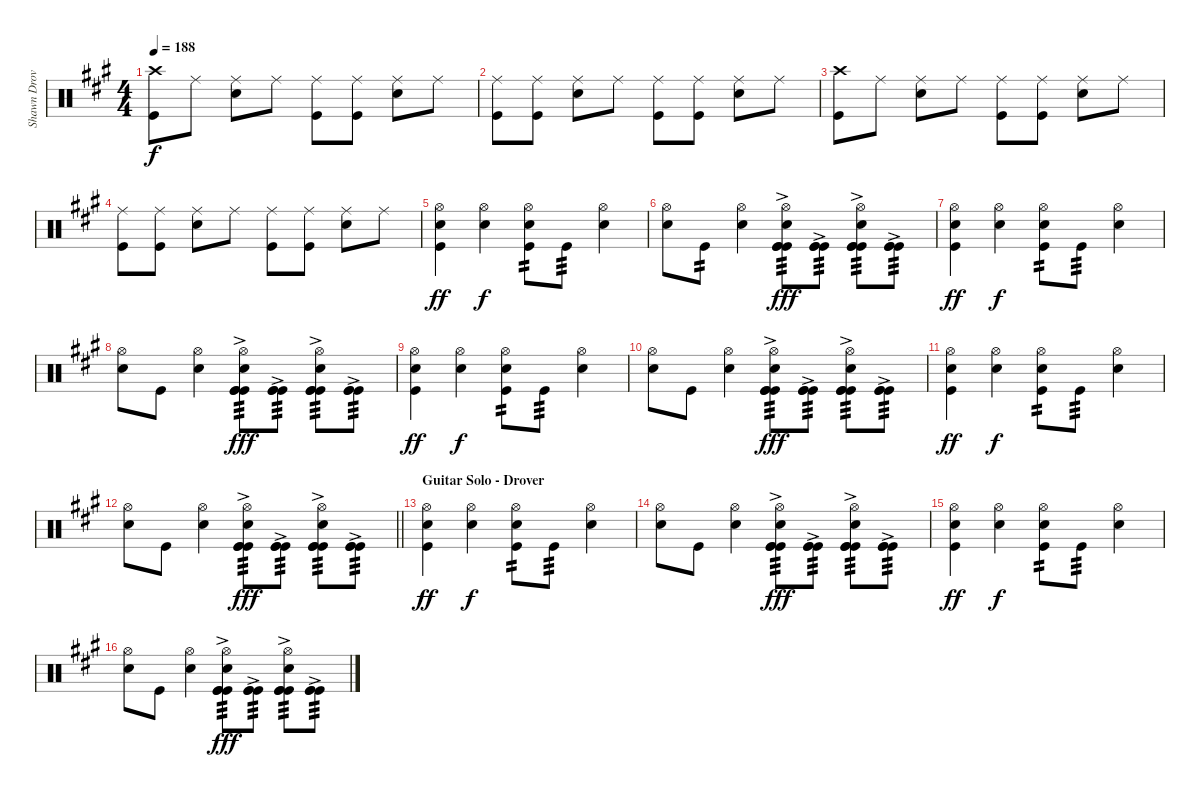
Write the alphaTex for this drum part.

\track ("Shawn Drover" "Shawn Drov") {instrument percussion}
\staff {score}
\articulation defaults
\ts (4 4)
\tempo 188
\clef neutral
\ks a
("Crash high (hit)" "Kick (hit)").8{dy f} "Ride (middle)".8 ("Ride (middle)" "Snare (hit) 2").8 "Ride (middle)".8 ("Ride (middle)" "Kick (hit)").8 ("Ride (middle)" "Kick (hit)").8 ("Ride (middle)" "Snare (hit) 2").8 "Ride (middle)".8 |
("Ride (middle)" "Kick (hit)").8 ("Ride (middle)" "Kick (hit)").8 ("Ride (middle)" "Snare (hit) 2").8 "Ride (middle)".8 ("Ride (middle)" "Kick (hit)").8 ("Ride (middle)" "Kick (hit)").8 ("Ride (middle)" "Snare (hit) 2").8 "Ride (middle)".8 |
("Crash high (hit)" "Kick (hit)").8 "Ride (middle)".8 ("Ride (middle)" "Snare (hit) 2").8 "Ride (middle)".8 ("Ride (middle)" "Kick (hit)").8 ("Ride (middle)" "Kick (hit)").8 ("Ride (middle)" "Snare (hit) 2").8 "Ride (middle)".8 |
("Ride (middle)" "Kick (hit)").8 ("Ride (middle)" "Kick (hit)").8 ("Ride (middle)" "Snare (hit) 2").8 "Ride (middle)".8 ("Ride (middle)" "Kick (hit)").8 ("Ride (middle)" "Kick (hit)").8 ("Ride (middle)" "Snare (hit) 2").8 "Ride (middle)".8 |
("Hi-Hat (open)" "Snare (hit) 2" "Kick (hit)").4{dy ff} ("Hi-Hat (open)" "Snare (hit) 2").4{dy f} ("Hi-Hat (open)" "Snare (hit) 2" "Kick (hit)").8{tp 2} "Kick (hit)".8{tp 3} ("Hi-Hat (open)" "Snare (hit) 2").4 |
("Hi-Hat (open)" "Snare (hit) 2").8 "Kick (hit)".8{tp 2} ("Hi-Hat (open)" "Snare (hit) 2").4 ("Hi-Hat (open)" "Snare (hit) 2" "Kick (hit)"{ac} "Kick (hit)" "Kick (hit)").8{tp 3 dy fff} ("Kick (hit)"{ac} "Kick (hit)" "Kick (hit)").8{tp 3} ("Hi-Hat (open)" "Snare (hit) 2" "Kick (hit)"{ac} "Kick (hit)" "Kick (hit)").8{tp 3} ("Kick (hit)"{ac} "Kick (hit)" "Kick (hit)").8{tp 3} |
("Hi-Hat (open)" "Snare (hit) 2" "Kick (hit)").4{dy ff} ("Hi-Hat (open)" "Snare (hit) 2").4{dy f} ("Hi-Hat (open)" "Snare (hit) 2" "Kick (hit)").8{tp 2} "Kick (hit)".8{tp 3} ("Hi-Hat (open)" "Snare (hit) 2").4 |
("Hi-Hat (open)" "Snare (hit) 2").8 "Kick (hit)".8 ("Hi-Hat (open)" "Snare (hit) 2").4 ("Hi-Hat (open)" "Snare (hit) 2" "Kick (hit)"{ac} "Kick (hit)" "Kick (hit)").8{tp 3 dy fff} ("Kick (hit)"{ac} "Kick (hit)" "Kick (hit)").8{tp 3} ("Hi-Hat (open)" "Snare (hit) 2" "Kick (hit)"{ac} "Kick (hit)" "Kick (hit)").8{tp 3} ("Kick (hit)"{ac} "Kick (hit)" "Kick (hit)").8{tp 3} |
("Hi-Hat (open)" "Snare (hit) 2" "Kick (hit)").4{dy ff} ("Hi-Hat (open)" "Snare (hit) 2").4{dy f} ("Hi-Hat (open)" "Snare (hit) 2" "Kick (hit)").8{tp 2} "Kick (hit)".8{tp 3} ("Hi-Hat (open)" "Snare (hit) 2").4 |
("Hi-Hat (open)" "Snare (hit) 2").8 "Kick (hit)".8 ("Hi-Hat (open)" "Snare (hit) 2").4 ("Hi-Hat (open)" "Snare (hit) 2" "Kick (hit)"{ac} "Kick (hit)" "Kick (hit)").8{tp 3 dy fff} ("Kick (hit)"{ac} "Kick (hit)" "Kick (hit)").8{tp 3} ("Hi-Hat (open)" "Snare (hit) 2" "Kick (hit)"{ac} "Kick (hit)" "Kick (hit)").8{tp 3} ("Kick (hit)"{ac} "Kick (hit)" "Kick (hit)").8{tp 3} |
("Hi-Hat (open)" "Snare (hit) 2" "Kick (hit)").4{dy ff} ("Hi-Hat (open)" "Snare (hit) 2").4{dy f} ("Hi-Hat (open)" "Snare (hit) 2" "Kick (hit)").8{tp 2} "Kick (hit)".8{tp 3} ("Hi-Hat (open)" "Snare (hit) 2").4 |
\barLineRight lightlight
("Hi-Hat (open)" "Snare (hit) 2").8 "Kick (hit)".8 ("Hi-Hat (open)" "Snare (hit) 2").4 ("Hi-Hat (open)" "Snare (hit) 2" "Kick (hit)"{ac} "Kick (hit)" "Kick (hit)").8{tp 3 dy fff} ("Kick (hit)"{ac} "Kick (hit)" "Kick (hit)").8{tp 3} ("Hi-Hat (open)" "Snare (hit) 2" "Kick (hit)"{ac} "Kick (hit)" "Kick (hit)").8{tp 3} ("Kick (hit)"{ac} "Kick (hit)" "Kick (hit)").8{tp 3} |
\section ("" "Guitar Solo - Drover")
("Hi-Hat (open)" "Snare (hit) 2" "Kick (hit)").4{dy ff} ("Hi-Hat (open)" "Snare (hit) 2").4{dy f} ("Hi-Hat (open)" "Snare (hit) 2" "Kick (hit)").8{tp 2} "Kick (hit)".8{tp 3} ("Hi-Hat (open)" "Snare (hit) 2").4 |
("Hi-Hat (open)" "Snare (hit) 2").8 "Kick (hit)".8 ("Hi-Hat (open)" "Snare (hit) 2").4 ("Hi-Hat (open)" "Snare (hit) 2" "Kick (hit)"{ac} "Kick (hit)" "Kick (hit)").8{tp 3 dy fff} ("Kick (hit)"{ac} "Kick (hit)" "Kick (hit)").8{tp 3} ("Hi-Hat (open)" "Snare (hit) 2" "Kick (hit)"{ac} "Kick (hit)" "Kick (hit)").8{tp 3} ("Kick (hit)"{ac} "Kick (hit)" "Kick (hit)").8{tp 3} |
("Hi-Hat (open)" "Snare (hit) 2" "Kick (hit)").4{dy ff} ("Hi-Hat (open)" "Snare (hit) 2").4{dy f} ("Hi-Hat (open)" "Snare (hit) 2" "Kick (hit)").8{tp 2} "Kick (hit)".8{tp 3} ("Hi-Hat (open)" "Snare (hit) 2").4 |
("Hi-Hat (open)" "Snare (hit) 2").8 "Kick (hit)".8 ("Hi-Hat (open)" "Snare (hit) 2").4 ("Hi-Hat (open)" "Snare (hit) 2" "Kick (hit)"{ac} "Kick (hit)" "Kick (hit)").8{tp 3 dy fff} ("Kick (hit)"{ac} "Kick (hit)" "Kick (hit)").8{tp 3} ("Hi-Hat (open)" "Snare (hit) 2" "Kick (hit)"{ac} "Kick (hit)" "Kick (hit)").8{tp 3} ("Kick (hit)"{ac} "Kick (hit)" "Kick (hit)").8{tp 3}
